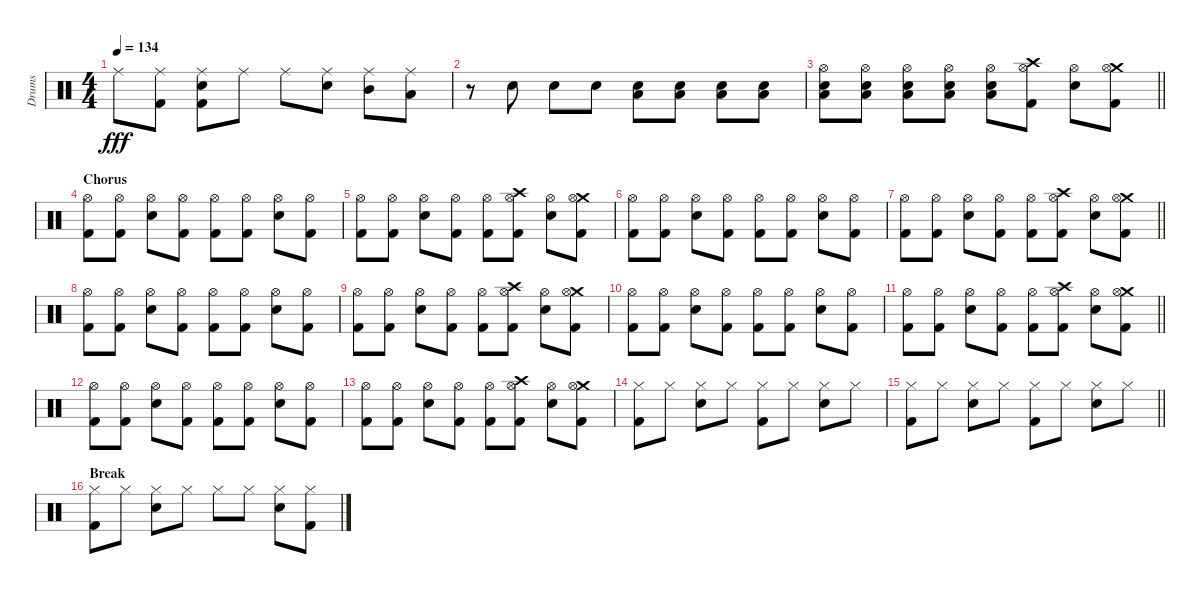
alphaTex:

\track ("Drums" "Drums") {instrument percussion}
\staff {score}
\articulation defaults
\ts (4 4)
\tempo 134
\clef neutral
\ks c "Ride (middle)".8{dy fff}
("Ride (middle)" "Kick (hit) 2").8 ("Ride (middle)" "Electric Snare (hit)" "Kick (hit) 2").8 "Ride (middle)".8 "Ride (middle)".8 ("Ride (middle)" "Electric Snare (hit)").8 ("Ride (middle)" "Mid Tom (hit)").8 ("Ride (middle)" "Low Tom (hit)").8 |
r.8 "Electric Snare (hit)".8 "Electric Snare (hit)".8 "Electric Snare (hit)".8 ("Low Tom (hit)" "Electric Snare (hit)").8 ("Low Tom (hit)" "Electric Snare (hit)").8 ("Low Tom (hit)" "Electric Snare (hit)").8 ("Low Tom (hit)" "Electric Snare (hit)").8 |
\barLineRight lightlight
("Hi-Hat (open)" "Low Tom (hit)" "Electric Snare (hit)").8 ("Hi-Hat (open)" "Low Tom (hit)" "Electric Snare (hit)").8 ("Hi-Hat (open)" "Low Tom (hit)" "Electric Snare (hit)").8 ("Hi-Hat (open)" "Low Tom (hit)" "Electric Snare (hit)").8 ("Hi-Hat (open)" "Low Tom (hit)" "Electric Snare (hit)").8 ("Crash high (hit)" "Hi-Hat (open)" "Kick (hit) 2").8 ("Hi-Hat (open)" "Electric Snare (hit)").8 ("Crash medium (hit)" "Hi-Hat (open)" "Kick (hit) 2").8 |
\section ("" "Chorus")
("Hi-Hat (open)" "Kick (hit) 2").8 ("Hi-Hat (open)" "Kick (hit) 2").8 ("Hi-Hat (open)" "Electric Snare (hit)").8 ("Hi-Hat (open)" "Kick (hit) 2").8 ("Hi-Hat (open)" "Kick (hit) 2").8 ("Hi-Hat (open)" "Kick (hit) 2").8 ("Hi-Hat (open)" "Electric Snare (hit)").8 ("Hi-Hat (open)" "Kick (hit) 2").8 |
("Hi-Hat (open)" "Kick (hit) 2").8 ("Hi-Hat (open)" "Kick (hit) 2").8 ("Hi-Hat (open)" "Electric Snare (hit)").8 ("Hi-Hat (open)" "Kick (hit) 2").8 ("Hi-Hat (open)" "Kick (hit) 2").8 ("Crash high (hit)" "Hi-Hat (open)" "Kick (hit) 2").8 ("Hi-Hat (open)" "Electric Snare (hit)").8 ("Crash medium (hit)" "Hi-Hat (open)" "Kick (hit) 2").8 |
("Hi-Hat (open)" "Kick (hit) 2").8 ("Hi-Hat (open)" "Kick (hit) 2").8 ("Hi-Hat (open)" "Electric Snare (hit)").8 ("Hi-Hat (open)" "Kick (hit) 2").8 ("Hi-Hat (open)" "Kick (hit) 2").8 ("Hi-Hat (open)" "Kick (hit) 2").8 ("Hi-Hat (open)" "Electric Snare (hit)").8 ("Hi-Hat (open)" "Kick (hit) 2").8 |
\barLineRight lightlight
("Hi-Hat (open)" "Kick (hit) 2").8 ("Hi-Hat (open)" "Kick (hit) 2").8 ("Hi-Hat (open)" "Electric Snare (hit)").8 ("Hi-Hat (open)" "Kick (hit) 2").8 ("Hi-Hat (open)" "Kick (hit) 2").8 ("Crash high (hit)" "Hi-Hat (open)" "Kick (hit) 2").8 ("Hi-Hat (open)" "Electric Snare (hit)").8 ("Crash medium (hit)" "Hi-Hat (open)" "Kick (hit) 2").8 |
("Hi-Hat (open)" "Kick (hit) 2").8 ("Hi-Hat (open)" "Kick (hit) 2").8 ("Hi-Hat (open)" "Electric Snare (hit)").8 ("Hi-Hat (open)" "Kick (hit) 2").8 ("Hi-Hat (open)" "Kick (hit) 2").8 ("Hi-Hat (open)" "Kick (hit) 2").8 ("Hi-Hat (open)" "Electric Snare (hit)").8 ("Hi-Hat (open)" "Kick (hit) 2").8 |
("Hi-Hat (open)" "Kick (hit) 2").8 ("Hi-Hat (open)" "Kick (hit) 2").8 ("Hi-Hat (open)" "Electric Snare (hit)").8 ("Hi-Hat (open)" "Kick (hit) 2").8 ("Hi-Hat (open)" "Kick (hit) 2").8 ("Crash high (hit)" "Hi-Hat (open)" "Kick (hit) 2").8 ("Hi-Hat (open)" "Electric Snare (hit)").8 ("Crash medium (hit)" "Hi-Hat (open)" "Kick (hit) 2").8 |
("Hi-Hat (open)" "Kick (hit) 2").8 ("Hi-Hat (open)" "Kick (hit) 2").8 ("Hi-Hat (open)" "Electric Snare (hit)").8 ("Hi-Hat (open)" "Kick (hit) 2").8 ("Hi-Hat (open)" "Kick (hit) 2").8 ("Hi-Hat (open)" "Kick (hit) 2").8 ("Hi-Hat (open)" "Electric Snare (hit)").8 ("Hi-Hat (open)" "Kick (hit) 2").8 |
\barLineRight lightlight
("Hi-Hat (open)" "Kick (hit) 2").8 ("Hi-Hat (open)" "Kick (hit) 2").8 ("Hi-Hat (open)" "Electric Snare (hit)").8 ("Hi-Hat (open)" "Kick (hit) 2").8 ("Hi-Hat (open)" "Kick (hit) 2").8 ("Crash high (hit)" "Hi-Hat (open)" "Kick (hit) 2").8 ("Hi-Hat (open)" "Electric Snare (hit)").8 ("Crash medium (hit)" "Hi-Hat (open)" "Kick (hit) 2").8 |
("Hi-Hat (open)" "Kick (hit) 2").8 ("Hi-Hat (open)" "Kick (hit) 2").8 ("Hi-Hat (open)" "Electric Snare (hit)").8 ("Hi-Hat (open)" "Kick (hit) 2").8 ("Hi-Hat (open)" "Kick (hit) 2").8 ("Hi-Hat (open)" "Kick (hit) 2").8 ("Hi-Hat (open)" "Electric Snare (hit)").8 ("Hi-Hat (open)" "Kick (hit) 2").8 |
("Hi-Hat (open)" "Kick (hit) 2").8 ("Hi-Hat (open)" "Kick (hit) 2").8 ("Hi-Hat (open)" "Electric Snare (hit)").8 ("Hi-Hat (open)" "Kick (hit) 2").8 ("Hi-Hat (open)" "Kick (hit) 2").8 ("Crash high (hit)" "Hi-Hat (open)" "Kick (hit) 2").8 ("Hi-Hat (open)" "Electric Snare (hit)").8 ("Crash medium (hit)" "Hi-Hat (open)" "Kick (hit) 2").8 |
("Hi-Hat (closed)" "Kick (hit) 2").8 "Hi-Hat (closed)".8 ("Hi-Hat (closed)" "Electric Snare (hit)").8 "Hi-Hat (closed)".8 ("Hi-Hat (closed)" "Kick (hit) 2").8 "Hi-Hat (closed)".8 ("Hi-Hat (closed)" "Electric Snare (hit)").8 "Hi-Hat (closed)".8 |
\barLineRight lightlight
("Hi-Hat (closed)" "Kick (hit) 2").8 "Hi-Hat (closed)".8 ("Hi-Hat (closed)" "Electric Snare (hit)").8 "Hi-Hat (closed)".8 ("Hi-Hat (closed)" "Kick (hit) 2").8 "Hi-Hat (closed)".8 ("Hi-Hat (closed)" "Electric Snare (hit)").8 "Hi-Hat (closed)".8 |
\section ("" "Break")
("Hi-Hat (closed)" "Kick (hit) 2").8 "Hi-Hat (closed)".8 ("Hi-Hat (closed)" "Electric Snare (hit)").8 "Hi-Hat (closed)".8 "Hi-Hat (closed)".8 "Hi-Hat (closed)".8 ("Hi-Hat (closed)" "Electric Snare (hit)").8 ("Hi-Hat (closed)" "Kick (hit) 2").8
